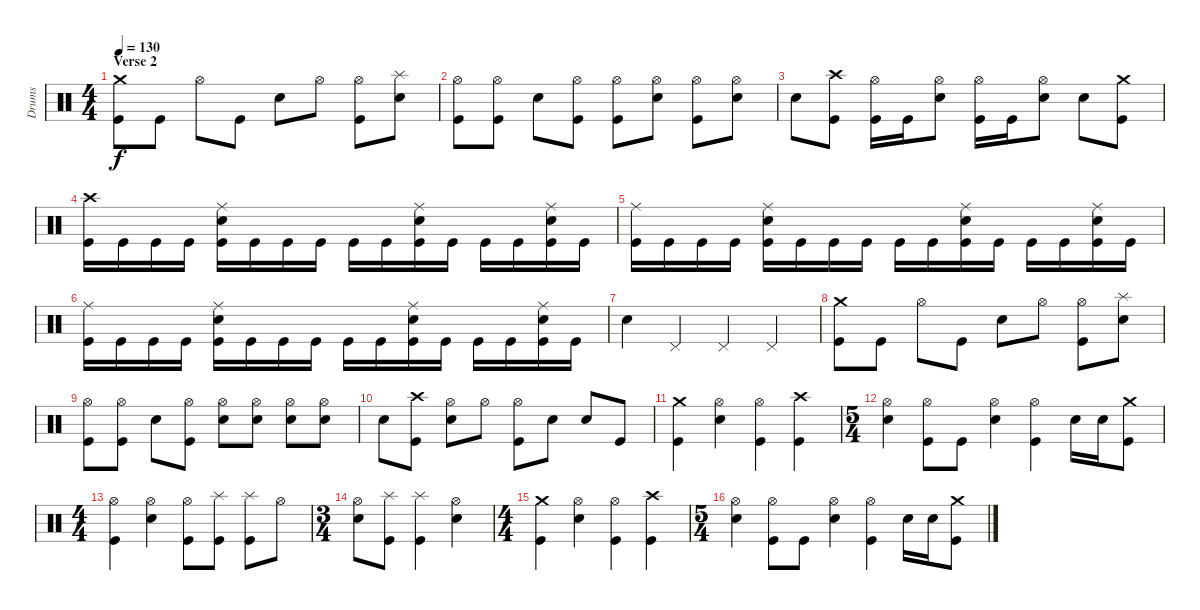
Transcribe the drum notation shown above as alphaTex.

\track ("Drums" "Drums") {instrument percussion}
\staff {score}
\articulation defaults
\ts (4 4)
\section ("" "Verse 2")
\tempo 130
\clef neutral
\ks c
("Crash medium (hit)" "Kick (hit)").8{dy f} "Kick (hit)".8 "Hi-Hat (open)".8 "Kick (hit)".8 "Snare (hit) 2".8 "Hi-Hat (open)".8 ("Hi-Hat (open)" "Kick (hit)").8 ("Splash (hit)" "Snare (hit) 2").8 |
("Hi-Hat (open)" "Kick (hit)").8 ("Hi-Hat (open)" "Kick (hit)").8 "Snare (hit) 2".8 ("Hi-Hat (open)" "Kick (hit)").8 ("Hi-Hat (open)" "Kick (hit)").8 ("Hi-Hat (open)" "Snare (hit) 2").8 ("Hi-Hat (open)" "Kick (hit)").8 ("Hi-Hat (open)" "Snare (hit) 2").8 |
"Snare (hit) 2".8 ("Crash high (hit)" "Kick (hit)").8 ("Hi-Hat (open)" "Kick (hit)").16 "Kick (hit)".16 ("Hi-Hat (open)" "Snare (hit) 2").8 ("Hi-Hat (open)" "Kick (hit)").16 "Kick (hit)".16 ("Hi-Hat (open)" "Snare (hit) 2").8 "Snare (hit) 2".8 ("Crash medium (hit)" "Kick (hit)").8 |
("Crash high (hit)" "Kick (hit)").16 "Kick (hit)".16 "Kick (hit)".16 "Kick (hit)".16 ("Ride (middle)" "Snare (hit) 2" "Kick (hit)").16 "Kick (hit)".16 "Kick (hit)".16 "Kick (hit)".16 "Kick (hit)".16 "Kick (hit)".16 ("Ride (middle)" "Snare (hit) 2" "Kick (hit)").16 "Kick (hit)".16 "Kick (hit)".16 "Kick (hit)".16 ("Ride (middle)" "Snare (hit) 2" "Kick (hit)").16 "Kick (hit)".16 |
("Ride (middle)" "Kick (hit)").16 "Kick (hit)".16 "Kick (hit)".16 "Kick (hit)".16 ("Ride (middle)" "Snare (hit) 2" "Kick (hit)").16 "Kick (hit)".16 "Kick (hit)".16 "Kick (hit)".16 "Kick (hit)".16 "Kick (hit)".16 ("Ride (middle)" "Snare (hit) 2" "Kick (hit)").16 "Kick (hit)".16 "Kick (hit)".16 "Kick (hit)".16 ("Ride (middle)" "Snare (hit) 2" "Kick (hit)").16 "Kick (hit)".16 |
("Ride (middle)" "Kick (hit)").16 "Kick (hit)".16 "Kick (hit)".16 "Kick (hit)".16 ("Ride (middle)" "Snare (hit) 2" "Kick (hit)").16 "Kick (hit)".16 "Kick (hit)".16 "Kick (hit)".16 "Kick (hit)".16 "Kick (hit)".16 ("Ride (middle)" "Snare (hit) 2" "Kick (hit)").16 "Kick (hit)".16 "Kick (hit)".16 "Kick (hit)".16 ("Ride (middle)" "Snare (hit) 2" "Kick (hit)").16 "Kick (hit)".16 |
"Snare (hit) 2".4 "Pedal Hi-Hat (hit)".4 "Pedal Hi-Hat (hit)".4 "Pedal Hi-Hat (hit)".4 |
("Crash medium (hit)" "Kick (hit)").8 "Kick (hit)".8 "Hi-Hat (open)".8 "Kick (hit)".8 "Snare (hit) 2".8 "Hi-Hat (open)".8 ("Hi-Hat (open)" "Kick (hit)").8 ("Splash (hit)" "Snare (hit) 2").8 |
("Hi-Hat (open)" "Kick (hit)").8 ("Hi-Hat (open)" "Kick (hit)").8 "Snare (hit) 2".8 ("Hi-Hat (open)" "Kick (hit)").8 ("Hi-Hat (open)" "Snare (hit) 2").8 ("Hi-Hat (open)" "Snare (hit) 2").8 ("Hi-Hat (open)" "Snare (hit) 2").8 ("Hi-Hat (open)" "Snare (hit) 2").8 |
"Snare (hit) 2".8 ("Crash high (hit)" "Kick (hit)").8 ("Hi-Hat (open)" "Snare (hit) 2").8 "Hi-Hat (open)".8 ("Hi-Hat (open)" "Kick (hit)").8 "Snare (hit) 2".8 "Snare (hit) 2".8 "Kick (hit)".8 |
("Crash medium (hit)" "Kick (hit)").4 ("Hi-Hat (open)" "Snare (hit) 2").4 ("Hi-Hat (open)" "Kick (hit)").4 ("Crash high (hit)" "Kick (hit)").4 |
\ts (5 4)
("Hi-Hat (open)" "Snare (hit) 2").4 ("Hi-Hat (open)" "Kick (hit)").8 "Kick (hit)".8 ("Hi-Hat (open)" "Snare (hit) 2").4 ("Hi-Hat (open)" "Kick (hit)").4 "Snare (hit) 2".16 "Snare (hit) 2".16 ("Crash medium (hit)" "Kick (hit)").8 |
\ts (4 4)
("Hi-Hat (open)" "Kick (hit)").4 ("Hi-Hat (open)" "Snare (hit) 2").4 ("Hi-Hat (open)" "Kick (hit)").8 ("Splash (hit)" "Kick (hit)").8 ("Splash (hit)" "Kick (hit)").8 "Hi-Hat (open)".8 |
\ts (3 4)
("Hi-Hat (open)" "Snare (hit) 2").8 ("Splash (hit)" "Kick (hit)").8 ("Splash (hit)" "Kick (hit)").4 ("Hi-Hat (open)" "Snare (hit) 2").4 |
\ts (4 4)
("Crash medium (hit)" "Kick (hit)").4 ("Hi-Hat (open)" "Snare (hit) 2").4 ("Hi-Hat (open)" "Kick (hit)").4 ("Crash high (hit)" "Kick (hit)").4 |
\ts (5 4)
("Hi-Hat (open)" "Snare (hit) 2").4 ("Hi-Hat (open)" "Kick (hit)").8 "Kick (hit)".8 ("Hi-Hat (open)" "Snare (hit) 2").4 ("Hi-Hat (open)" "Kick (hit)").4 "Snare (hit) 2".16 "Snare (hit) 2".16 ("Crash medium (hit)" "Kick (hit)").8
